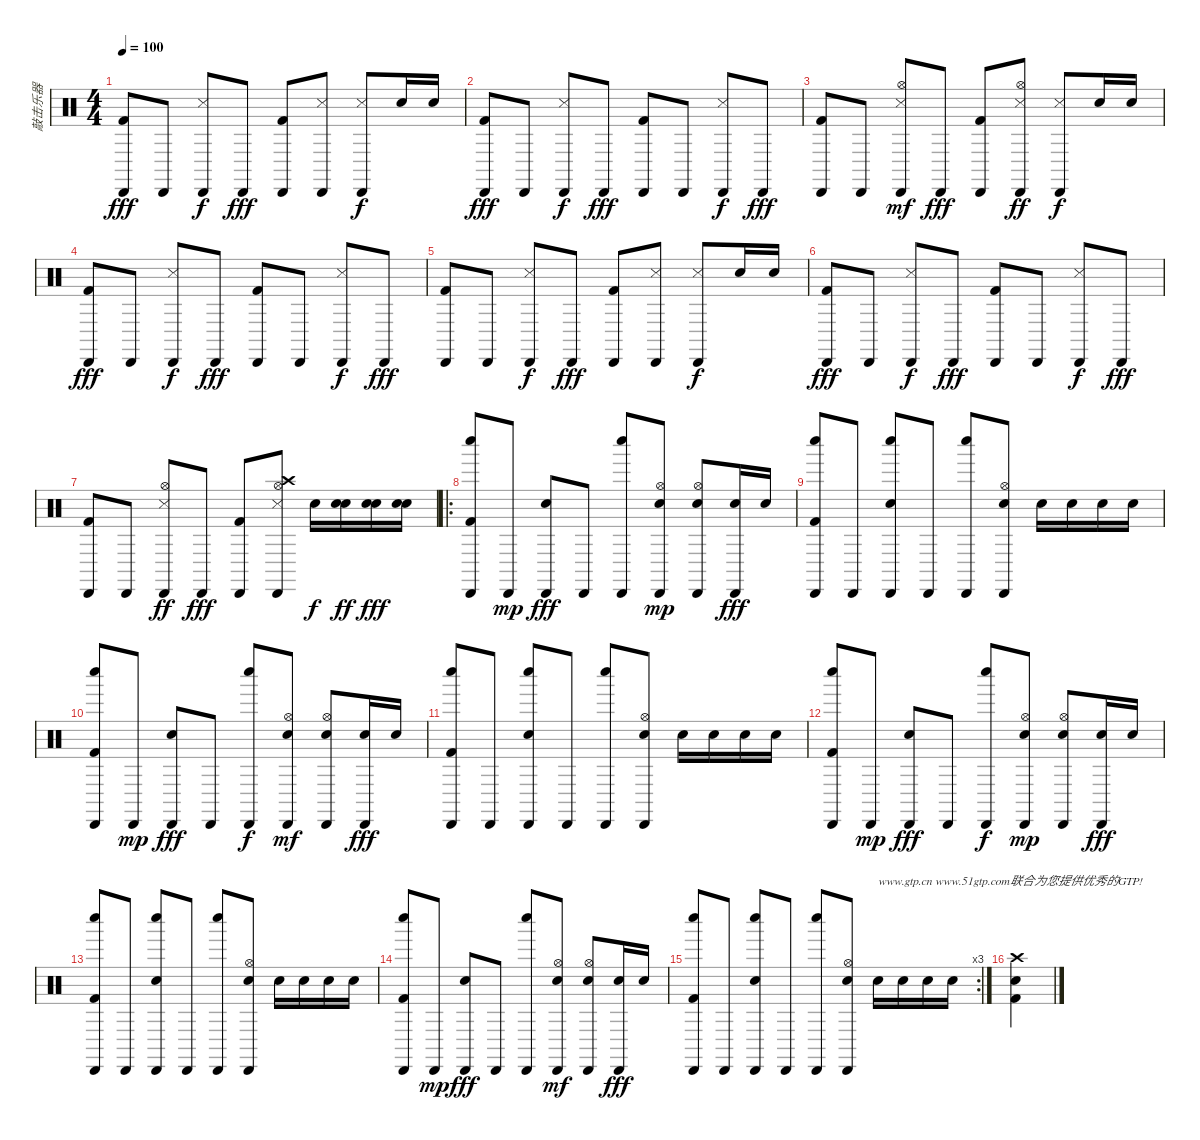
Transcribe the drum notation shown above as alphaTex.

\track ("敲击乐器" "敲击乐器") {instrument percussion}
\staff {score}
\articulation defaults
\ts (4 4)
\tempo 100
\clef neutral
\ks c
("Cabasa (hit)" "Kick (hit) 2").8{dy fff} "Cabasa (hit)".8 ("Cabasa (hit)" "Snare (side stick) 3").8{dy f} "Cabasa (hit)".8{dy fff} ("Cabasa (hit)" "Kick (hit) 2").8 ("Cabasa (hit)" "Snare (side stick) 3").8 ("Cabasa (hit)" "Snare (side stick) 3").8{dy f} "Electric Snare (hit)".16 "Snare (hit) 2".16 |
("Cabasa (hit)" "Kick (hit) 2").8{dy fff} "Cabasa (hit)".8 ("Cabasa (hit)" "Snare (side stick) 3").8{dy f} "Cabasa (hit)".8{dy fff} ("Cabasa (hit)" "Kick (hit) 2").8 "Cabasa (hit)".8 ("Cabasa (hit)" "Snare (side stick) 3").8{dy f} "Cabasa (hit)".8{dy fff} |
("Cabasa (hit)" "Kick (hit) 2").8 "Cabasa (hit)".8 ("Cabasa (hit)" "Snare (side stick) 3" "Hi-Hat (open)").8{dy mf} "Cabasa (hit)".8{dy fff} ("Cabasa (hit)" "Kick (hit) 2").8 ("Cabasa (hit)" "Snare (side stick) 3" "Hi-Hat (open)").8{dy ff} ("Cabasa (hit)" "Snare (side stick) 3").8{dy f} "Electric Snare (hit)".16 "Snare (hit) 2".16 |
("Cabasa (hit)" "Kick (hit) 2").8{dy fff} "Cabasa (hit)".8 ("Cabasa (hit)" "Snare (side stick) 3").8{dy f} "Cabasa (hit)".8{dy fff} ("Cabasa (hit)" "Kick (hit) 2").8 "Cabasa (hit)".8 ("Cabasa (hit)" "Snare (side stick) 3").8{dy f} "Cabasa (hit)".8{dy fff} |
("Cabasa (hit)" "Kick (hit) 2").8 "Cabasa (hit)".8 ("Cabasa (hit)" "Snare (side stick) 3").8{dy f} "Cabasa (hit)".8{dy fff} ("Cabasa (hit)" "Kick (hit) 2").8 ("Cabasa (hit)" "Snare (side stick) 3").8 ("Cabasa (hit)" "Snare (side stick) 3").8{dy f} "Electric Snare (hit)".16 "Snare (hit) 2".16 |
("Cabasa (hit)" "Kick (hit) 2").8{dy fff} "Cabasa (hit)".8 ("Cabasa (hit)" "Snare (side stick) 3").8{dy f} "Cabasa (hit)".8{dy fff} ("Cabasa (hit)" "Kick (hit) 2").8 "Cabasa (hit)".8 ("Cabasa (hit)" "Snare (side stick) 3").8{dy f} "Cabasa (hit)".8{dy fff} |
("Cabasa (hit)" "Kick (hit) 2").8 "Cabasa (hit)".8 ("Cabasa (hit)" "Snare (side stick) 3" "Hi-Hat (open)").8{dy ff} "Cabasa (hit)".8{dy fff} ("Cabasa (hit)" "Kick (hit) 2").8 ("Cabasa (hit)" "Snare (side stick) 3" "Hi-Hat (open)" "Crash high (hit)").8 "Snare (hit) 2".16{dy f} ("Electric Snare (hit)" "Snare (hit) 2").16{dy ff} ("Snare (hit) 2" "Snare (hit) 2").16{dy fff} ("Snare (hit) 2" "Electric Snare (hit)").16 |
\ro
("Kick (hit) 2" "Cabasa (hit)" "Whistle low (hit)").8 "Cabasa (hit)".8{dy mp} ("Cabasa (hit)" "Snare (hit) 2").8{dy fff} "Cabasa (hit)".8 ("Cabasa (hit)" "Whistle low (hit)").8 ("Cabasa (hit)" "Snare (hit) 2" "Hi-Hat (open)").8{dy mp} ("Cabasa (hit)" "Snare (hit) 2" "Hi-Hat (open)").8 ("Cabasa (hit)" "Snare (hit) 2").16{dy fff} "Snare (hit) 2".16 |
("Kick (hit) 2" "Cabasa (hit)" "Whistle low (hit)").8 "Cabasa (hit)".8 ("Cabasa (hit)" "Snare (hit) 2" "Whistle low (hit)").8 "Cabasa (hit)".8 ("Cabasa (hit)" "Whistle low (hit)").8 ("Cabasa (hit)" "Snare (hit) 2" "Hi-Hat (open)").8 "Snare (hit) 2".16 "Snare (hit) 2".16 "Snare (hit) 2".16 "Snare (hit) 2".16 |
("Kick (hit) 2" "Cabasa (hit)" "Whistle low (hit)").8 "Cabasa (hit)".8{dy mp} ("Cabasa (hit)" "Snare (hit) 2").8{dy fff} "Cabasa (hit)".8 ("Cabasa (hit)" "Whistle low (hit)").8{dy f} ("Cabasa (hit)" "Snare (hit) 2" "Hi-Hat (open)").8{dy mf} ("Cabasa (hit)" "Snare (hit) 2" "Hi-Hat (open)").8 ("Cabasa (hit)" "Snare (hit) 2").16{dy fff} "Snare (hit) 2".16 |
("Kick (hit) 2" "Cabasa (hit)" "Whistle low (hit)").8 "Cabasa (hit)".8 ("Cabasa (hit)" "Snare (hit) 2" "Whistle low (hit)").8 "Cabasa (hit)".8 ("Cabasa (hit)" "Whistle low (hit)").8 ("Cabasa (hit)" "Snare (hit) 2" "Hi-Hat (open)").8 "Snare (hit) 2".16 "Snare (hit) 2".16 "Snare (hit) 2".16 "Snare (hit) 2".16 |
("Kick (hit) 2" "Cabasa (hit)" "Whistle low (hit)").8 "Cabasa (hit)".8{dy mp} ("Cabasa (hit)" "Snare (hit) 2").8{dy fff} "Cabasa (hit)".8 ("Cabasa (hit)" "Whistle low (hit)").8{dy f} ("Cabasa (hit)" "Snare (hit) 2" "Hi-Hat (open)").8{dy mp} ("Cabasa (hit)" "Snare (hit) 2" "Hi-Hat (open)").8 ("Cabasa (hit)" "Snare (hit) 2").16{dy fff} "Snare (hit) 2".16 |
("Kick (hit) 2" "Cabasa (hit)" "Whistle low (hit)").8 "Cabasa (hit)".8 ("Cabasa (hit)" "Snare (hit) 2" "Whistle low (hit)").8 "Cabasa (hit)".8 ("Cabasa (hit)" "Whistle low (hit)").8 ("Cabasa (hit)" "Snare (hit) 2" "Hi-Hat (open)").8 "Snare (hit) 2".16 "Snare (hit) 2".16 "Snare (hit) 2".16 "Snare (hit) 2".16 |
("Kick (hit) 2" "Cabasa (hit)" "Whistle low (hit)").8 "Cabasa (hit)".8{dy mp} ("Cabasa (hit)" "Snare (hit) 2").8{dy fff} "Cabasa (hit)".8 ("Cabasa (hit)" "Whistle low (hit)").8 ("Cabasa (hit)" "Snare (hit) 2" "Hi-Hat (open)").8{dy mf} ("Cabasa (hit)" "Snare (hit) 2" "Hi-Hat (open)").8 ("Cabasa (hit)" "Snare (hit) 2").16{dy fff} "Snare (hit) 2".16 |
\rc 3
("Kick (hit) 2" "Cabasa (hit)" "Whistle low (hit)").8 "Cabasa (hit)".8 ("Cabasa (hit)" "Snare (hit) 2" "Whistle low (hit)").8 "Cabasa (hit)".8 ("Cabasa (hit)" "Whistle low (hit)").8 ("Cabasa (hit)" "Snare (hit) 2" "Hi-Hat (open)").8 "Snare (hit) 2".16{txt "www.gtp.cn www.51gtp.com联合为您提供优秀的GTP!"} "Snare (hit) 2".16 "Snare (hit) 2".16 "Snare (hit) 2".16 |
("Snare (hit) 2" "Crash high (hit)" "Kick (hit) 2").4
